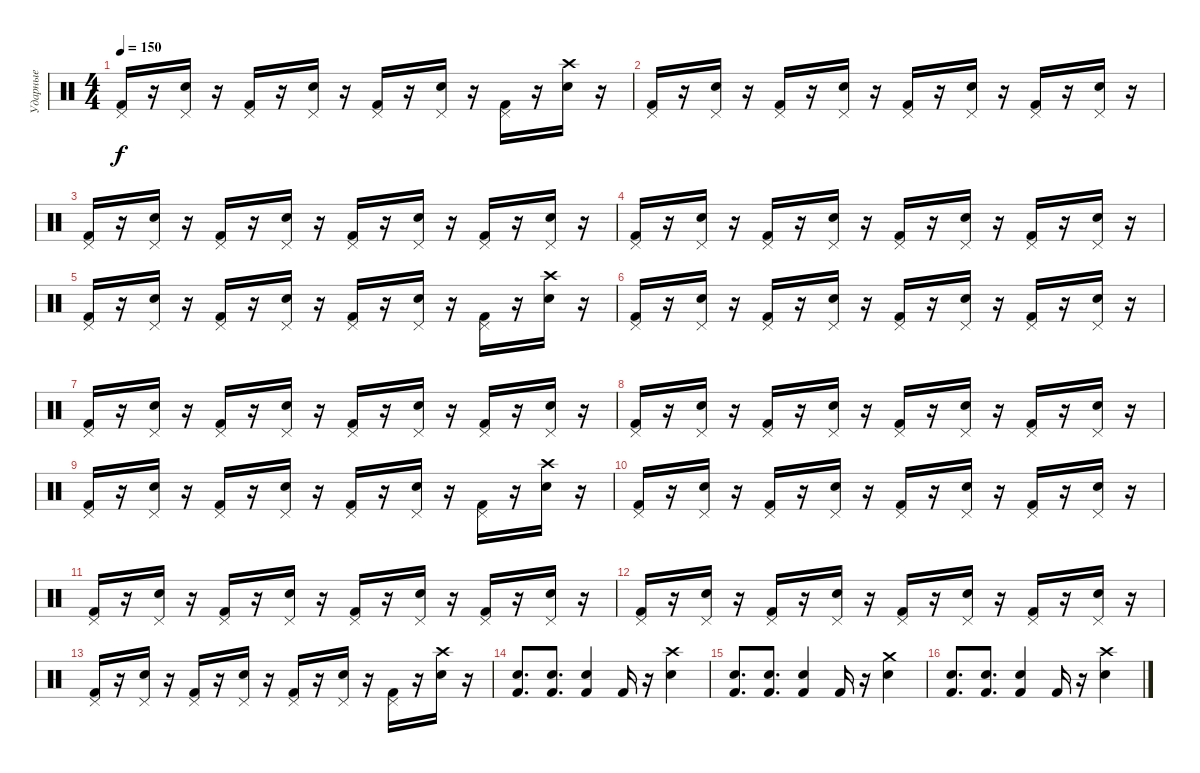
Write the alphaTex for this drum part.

\track ("Ударные" "Ударные") {instrument percussion}
\staff {score}
\articulation defaults
\ts (4 4)
\tempo 150
\clef neutral
\ks c
("Kick (hit) 2" "Pedal Hi-Hat (hit)").16{dy f} r.16 ("Electric Snare (hit)" "Pedal Hi-Hat (hit)").16 r.16 ("Kick (hit) 2" "Pedal Hi-Hat (hit)").16 r.16 ("Electric Snare (hit)" "Pedal Hi-Hat (hit)").16 r.16 ("Kick (hit) 2" "Pedal Hi-Hat (hit)").16 r.16 ("Electric Snare (hit)" "Pedal Hi-Hat (hit)").16 r.16 ("Kick (hit) 2" "Pedal Hi-Hat (hit)").16 r.16 ("Electric Snare (hit)" "Crash high (hit)").16 r.16 |
("Kick (hit) 2" "Pedal Hi-Hat (hit)").16 r.16 ("Electric Snare (hit)" "Pedal Hi-Hat (hit)").16 r.16 ("Kick (hit) 2" "Pedal Hi-Hat (hit)").16 r.16 ("Electric Snare (hit)" "Pedal Hi-Hat (hit)").16 r.16 ("Kick (hit) 2" "Pedal Hi-Hat (hit)").16 r.16 ("Electric Snare (hit)" "Pedal Hi-Hat (hit)").16 r.16 ("Kick (hit) 2" "Pedal Hi-Hat (hit)").16 r.16 ("Electric Snare (hit)" "Pedal Hi-Hat (hit)").16 r.16 |
("Kick (hit) 2" "Pedal Hi-Hat (hit)").16 r.16 ("Electric Snare (hit)" "Pedal Hi-Hat (hit)").16 r.16 ("Kick (hit) 2" "Pedal Hi-Hat (hit)").16 r.16 ("Electric Snare (hit)" "Pedal Hi-Hat (hit)").16 r.16 ("Kick (hit) 2" "Pedal Hi-Hat (hit)").16 r.16 ("Electric Snare (hit)" "Pedal Hi-Hat (hit)").16 r.16 ("Kick (hit) 2" "Pedal Hi-Hat (hit)").16 r.16 ("Electric Snare (hit)" "Pedal Hi-Hat (hit)").16 r.16 |
("Kick (hit) 2" "Pedal Hi-Hat (hit)").16 r.16 ("Electric Snare (hit)" "Pedal Hi-Hat (hit)").16 r.16 ("Kick (hit) 2" "Pedal Hi-Hat (hit)").16 r.16 ("Electric Snare (hit)" "Pedal Hi-Hat (hit)").16 r.16 ("Kick (hit) 2" "Pedal Hi-Hat (hit)").16 r.16 ("Electric Snare (hit)" "Pedal Hi-Hat (hit)").16 r.16 ("Kick (hit) 2" "Pedal Hi-Hat (hit)").16 r.16 ("Electric Snare (hit)" "Pedal Hi-Hat (hit)").16 r.16 |
("Kick (hit) 2" "Pedal Hi-Hat (hit)").16 r.16 ("Electric Snare (hit)" "Pedal Hi-Hat (hit)").16 r.16 ("Kick (hit) 2" "Pedal Hi-Hat (hit)").16 r.16 ("Electric Snare (hit)" "Pedal Hi-Hat (hit)").16 r.16 ("Kick (hit) 2" "Pedal Hi-Hat (hit)").16 r.16 ("Electric Snare (hit)" "Pedal Hi-Hat (hit)").16 r.16 ("Kick (hit) 2" "Pedal Hi-Hat (hit)").16 r.16 ("Electric Snare (hit)" "Crash high (hit)").16 r.16 |
("Kick (hit) 2" "Pedal Hi-Hat (hit)").16 r.16 ("Electric Snare (hit)" "Pedal Hi-Hat (hit)").16 r.16 ("Kick (hit) 2" "Pedal Hi-Hat (hit)").16 r.16 ("Electric Snare (hit)" "Pedal Hi-Hat (hit)").16 r.16 ("Kick (hit) 2" "Pedal Hi-Hat (hit)").16 r.16 ("Electric Snare (hit)" "Pedal Hi-Hat (hit)").16 r.16 ("Kick (hit) 2" "Pedal Hi-Hat (hit)").16 r.16 ("Electric Snare (hit)" "Pedal Hi-Hat (hit)").16 r.16 |
("Kick (hit) 2" "Pedal Hi-Hat (hit)").16 r.16 ("Electric Snare (hit)" "Pedal Hi-Hat (hit)").16 r.16 ("Kick (hit) 2" "Pedal Hi-Hat (hit)").16 r.16 ("Electric Snare (hit)" "Pedal Hi-Hat (hit)").16 r.16 ("Kick (hit) 2" "Pedal Hi-Hat (hit)").16 r.16 ("Electric Snare (hit)" "Pedal Hi-Hat (hit)").16 r.16 ("Kick (hit) 2" "Pedal Hi-Hat (hit)").16 r.16 ("Electric Snare (hit)" "Pedal Hi-Hat (hit)").16 r.16 |
("Kick (hit) 2" "Pedal Hi-Hat (hit)").16 r.16 ("Electric Snare (hit)" "Pedal Hi-Hat (hit)").16 r.16 ("Kick (hit) 2" "Pedal Hi-Hat (hit)").16 r.16 ("Electric Snare (hit)" "Pedal Hi-Hat (hit)").16 r.16 ("Kick (hit) 2" "Pedal Hi-Hat (hit)").16 r.16 ("Electric Snare (hit)" "Pedal Hi-Hat (hit)").16 r.16 ("Kick (hit) 2" "Pedal Hi-Hat (hit)").16 r.16 ("Electric Snare (hit)" "Pedal Hi-Hat (hit)").16 r.16 |
("Kick (hit) 2" "Pedal Hi-Hat (hit)").16 r.16 ("Electric Snare (hit)" "Pedal Hi-Hat (hit)").16 r.16 ("Kick (hit) 2" "Pedal Hi-Hat (hit)").16 r.16 ("Electric Snare (hit)" "Pedal Hi-Hat (hit)").16 r.16 ("Kick (hit) 2" "Pedal Hi-Hat (hit)").16 r.16 ("Electric Snare (hit)" "Pedal Hi-Hat (hit)").16 r.16 ("Kick (hit) 2" "Pedal Hi-Hat (hit)").16 r.16 ("Electric Snare (hit)" "Crash high (hit)").16 r.16 |
("Kick (hit) 2" "Pedal Hi-Hat (hit)").16 r.16 ("Electric Snare (hit)" "Pedal Hi-Hat (hit)").16 r.16 ("Kick (hit) 2" "Pedal Hi-Hat (hit)").16 r.16 ("Electric Snare (hit)" "Pedal Hi-Hat (hit)").16 r.16 ("Kick (hit) 2" "Pedal Hi-Hat (hit)").16 r.16 ("Electric Snare (hit)" "Pedal Hi-Hat (hit)").16 r.16 ("Kick (hit) 2" "Pedal Hi-Hat (hit)").16 r.16 ("Electric Snare (hit)" "Pedal Hi-Hat (hit)").16 r.16 |
("Kick (hit) 2" "Pedal Hi-Hat (hit)").16 r.16 ("Electric Snare (hit)" "Pedal Hi-Hat (hit)").16 r.16 ("Kick (hit) 2" "Pedal Hi-Hat (hit)").16 r.16 ("Electric Snare (hit)" "Pedal Hi-Hat (hit)").16 r.16 ("Kick (hit) 2" "Pedal Hi-Hat (hit)").16 r.16 ("Electric Snare (hit)" "Pedal Hi-Hat (hit)").16 r.16 ("Kick (hit) 2" "Pedal Hi-Hat (hit)").16 r.16 ("Electric Snare (hit)" "Pedal Hi-Hat (hit)").16 r.16 |
("Kick (hit) 2" "Pedal Hi-Hat (hit)").16 r.16 ("Electric Snare (hit)" "Pedal Hi-Hat (hit)").16 r.16 ("Kick (hit) 2" "Pedal Hi-Hat (hit)").16 r.16 ("Electric Snare (hit)" "Pedal Hi-Hat (hit)").16 r.16 ("Kick (hit) 2" "Pedal Hi-Hat (hit)").16 r.16 ("Electric Snare (hit)" "Pedal Hi-Hat (hit)").16 r.16 ("Kick (hit) 2" "Pedal Hi-Hat (hit)").16 r.16 ("Electric Snare (hit)" "Pedal Hi-Hat (hit)").16 r.16 |
("Kick (hit) 2" "Pedal Hi-Hat (hit)").16 r.16 ("Electric Snare (hit)" "Pedal Hi-Hat (hit)").16 r.16 ("Kick (hit) 2" "Pedal Hi-Hat (hit)").16 r.16 ("Electric Snare (hit)" "Pedal Hi-Hat (hit)").16 r.16 ("Kick (hit) 2" "Pedal Hi-Hat (hit)").16 r.16 ("Electric Snare (hit)" "Pedal Hi-Hat (hit)").16 r.16 ("Kick (hit) 2" "Pedal Hi-Hat (hit)").16 r.16 ("Electric Snare (hit)" "Crash high (hit)").16 r.16 |
("Electric Snare (hit)" "Kick (hit) 2").8{d} ("Electric Snare (hit)" "Kick (hit) 2").8{d} ("Electric Snare (hit)" "Kick (hit) 2").4 "Kick (hit) 2".16 r.16 ("Electric Snare (hit)" "Crash high (hit)").4 |
("Electric Snare (hit)" "Kick (hit) 2").8{d} ("Electric Snare (hit)" "Kick (hit) 2").8{d} ("Electric Snare (hit)" "Kick (hit) 2").4 "Kick (hit) 2".16 r.16 ("Electric Snare (hit)" "Crash medium (hit)").4 |
("Electric Snare (hit)" "Kick (hit) 2").8{d} ("Electric Snare (hit)" "Kick (hit) 2").8{d} ("Electric Snare (hit)" "Kick (hit) 2").4 "Kick (hit) 2".16 r.16 ("Electric Snare (hit)" "Crash high (hit)").4
